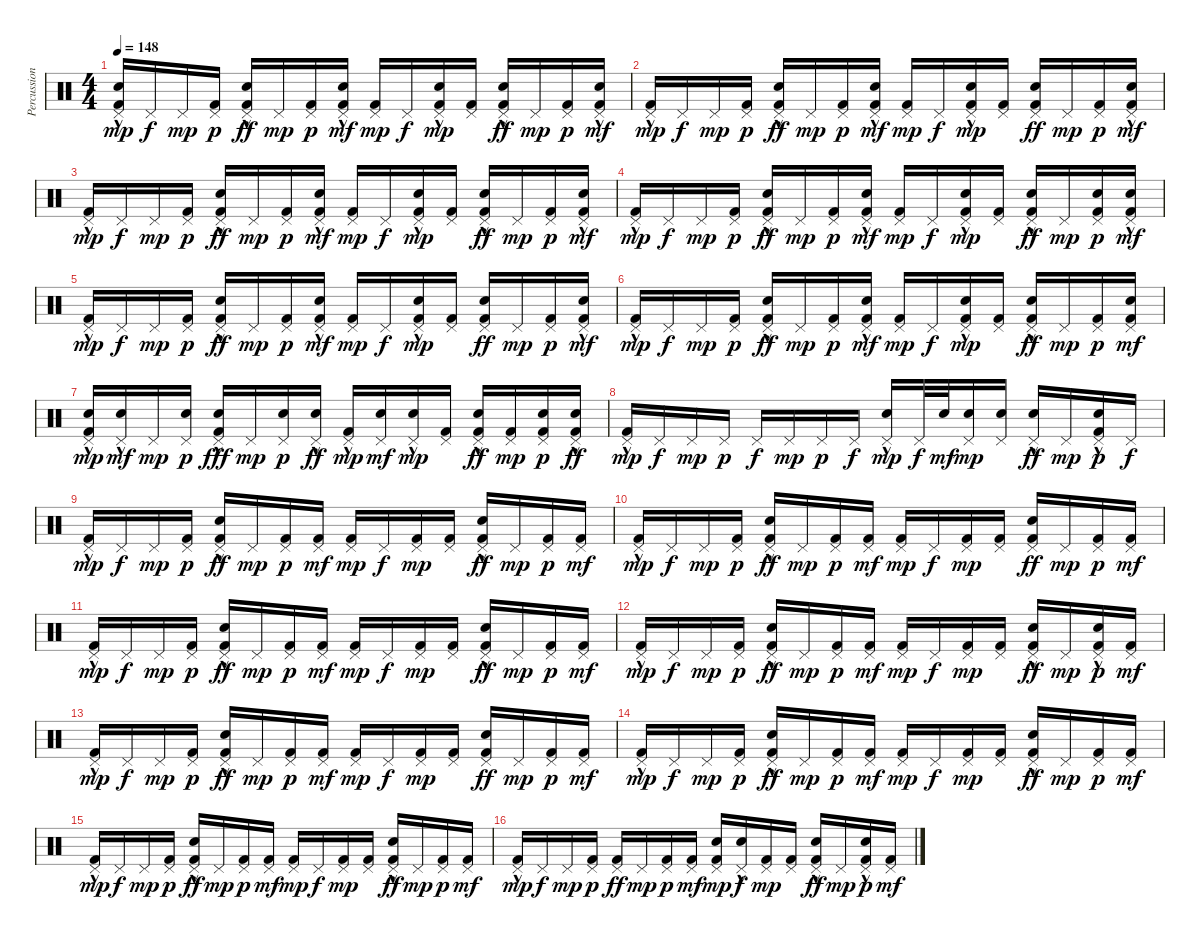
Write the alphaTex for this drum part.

\track ("Percussion" "Percussion") {instrument percussion}
\staff {score}
\articulation defaults
\ts (4 4)
\tempo 148
\clef neutral
\ks c
("Electric Snare (hit)" "Kick (hit) 2"{hac} "Pedal Hi-Hat (hit)").16{dy mp} "Pedal Hi-Hat (hit)".16{dy f} "Pedal Hi-Hat (hit)".16{dy mp} ("Kick (hit) 2" "Pedal Hi-Hat (hit)").16{dy p} ("Electric Snare (hit)"{hac} "Kick (hit) 2" "Pedal Hi-Hat (hit)").16{dy ff} "Pedal Hi-Hat (hit)".16{dy mp} ("Kick (hit) 2" "Pedal Hi-Hat (hit)").16{dy p} ("Electric Snare (hit)"{hac} "Kick (hit) 2" "Pedal Hi-Hat (hit)").16{dy mf} ("Kick (hit) 2" "Pedal Hi-Hat (hit)").16{dy mp} "Pedal Hi-Hat (hit)".16{dy f} ("Electric Snare (hit)"{hac} "Kick (hit) 2" "Pedal Hi-Hat (hit)").16{dy mp} ("Kick (hit) 2" "Pedal Hi-Hat (hit)").16 ("Electric Snare (hit)"{hac} "Kick (hit) 2" "Pedal Hi-Hat (hit)").16{dy ff} "Pedal Hi-Hat (hit)".16{dy mp} ("Kick (hit) 2" "Pedal Hi-Hat (hit)").16{dy p} ("Electric Snare (hit)"{hac} "Kick (hit) 2" "Pedal Hi-Hat (hit)").16{dy mf} |
("Kick (hit) 2"{hac} "Pedal Hi-Hat (hit)").16{dy mp} "Pedal Hi-Hat (hit)".16{dy f} "Pedal Hi-Hat (hit)".16{dy mp} ("Kick (hit) 2" "Pedal Hi-Hat (hit)").16{dy p} ("Electric Snare (hit)"{hac} "Kick (hit) 2" "Pedal Hi-Hat (hit)").16{dy ff} "Pedal Hi-Hat (hit)".16{dy mp} ("Kick (hit) 2" "Pedal Hi-Hat (hit)").16{dy p} ("Electric Snare (hit)"{hac} "Kick (hit) 2" "Pedal Hi-Hat (hit)").16{dy mf} ("Kick (hit) 2" "Pedal Hi-Hat (hit)").16{dy mp} "Pedal Hi-Hat (hit)".16{dy f} ("Electric Snare (hit)"{hac} "Kick (hit) 2" "Pedal Hi-Hat (hit)").16{dy mp} ("Kick (hit) 2" "Pedal Hi-Hat (hit)").16 ("Electric Snare (hit)" "Kick (hit) 2" "Pedal Hi-Hat (hit)").16{dy ff} "Pedal Hi-Hat (hit)".16{dy mp} ("Kick (hit) 2" "Pedal Hi-Hat (hit)").16{dy p} ("Electric Snare (hit)"{hac} "Kick (hit) 2" "Pedal Hi-Hat (hit)").16{dy mf} |
("Kick (hit) 2"{hac} "Pedal Hi-Hat (hit)").16{dy mp} "Pedal Hi-Hat (hit)".16{dy f} "Pedal Hi-Hat (hit)".16{dy mp} ("Kick (hit) 2" "Pedal Hi-Hat (hit)").16{dy p} ("Electric Snare (hit)"{hac} "Kick (hit) 2" "Pedal Hi-Hat (hit)").16{dy ff} "Pedal Hi-Hat (hit)".16{dy mp} ("Kick (hit) 2" "Pedal Hi-Hat (hit)").16{dy p} ("Electric Snare (hit)"{hac} "Kick (hit) 2" "Pedal Hi-Hat (hit)").16{dy mf} ("Kick (hit) 2" "Pedal Hi-Hat (hit)").16{dy mp} "Pedal Hi-Hat (hit)".16{dy f} ("Electric Snare (hit)"{hac} "Kick (hit) 2" "Pedal Hi-Hat (hit)").16{dy mp} ("Kick (hit) 2" "Pedal Hi-Hat (hit)").16 ("Electric Snare (hit)"{hac} "Kick (hit) 2" "Pedal Hi-Hat (hit)").16{dy ff} "Pedal Hi-Hat (hit)".16{dy mp} ("Kick (hit) 2" "Pedal Hi-Hat (hit)").16{dy p} ("Electric Snare (hit)"{hac} "Kick (hit) 2" "Pedal Hi-Hat (hit)").16{dy mf} |
("Kick (hit) 2"{hac} "Pedal Hi-Hat (hit)").16{dy mp} "Pedal Hi-Hat (hit)".16{dy f} "Pedal Hi-Hat (hit)".16{dy mp} ("Kick (hit) 2" "Pedal Hi-Hat (hit)").16{dy p} ("Electric Snare (hit)"{hac} "Kick (hit) 2" "Pedal Hi-Hat (hit)").16{dy ff} "Pedal Hi-Hat (hit)".16{dy mp} ("Kick (hit) 2" "Pedal Hi-Hat (hit)").16{dy p} ("Electric Snare (hit)"{hac} "Kick (hit) 2" "Pedal Hi-Hat (hit)").16{dy mf} ("Kick (hit) 2" "Pedal Hi-Hat (hit)").16{dy mp} "Pedal Hi-Hat (hit)".16{dy f} ("Electric Snare (hit)"{hac} "Kick (hit) 2" "Pedal Hi-Hat (hit)").16{dy mp} ("Kick (hit) 2" "Pedal Hi-Hat (hit)").16 ("Electric Snare (hit)"{hac} "Kick (hit) 2" "Pedal Hi-Hat (hit)").16{dy ff} "Pedal Hi-Hat (hit)".16{dy mp} ("Electric Snare (hit)" "Kick (hit) 2" "Pedal Hi-Hat (hit)").16{dy p} ("Electric Snare (hit)"{hac} "Kick (hit) 2" "Pedal Hi-Hat (hit)").16{dy mf} |
("Kick (hit) 2"{hac} "Pedal Hi-Hat (hit)").16{dy mp} "Pedal Hi-Hat (hit)".16{dy f} "Pedal Hi-Hat (hit)".16{dy mp} ("Kick (hit) 2" "Pedal Hi-Hat (hit)").16{dy p} ("Electric Snare (hit)"{hac} "Kick (hit) 2" "Pedal Hi-Hat (hit)").16{dy ff} "Pedal Hi-Hat (hit)".16{dy mp} ("Kick (hit) 2" "Pedal Hi-Hat (hit)").16{dy p} ("Electric Snare (hit)"{hac} "Kick (hit) 2" "Pedal Hi-Hat (hit)").16{dy mf} ("Kick (hit) 2" "Pedal Hi-Hat (hit)").16{dy mp} "Pedal Hi-Hat (hit)".16{dy f} ("Electric Snare (hit)"{hac} "Kick (hit) 2" "Pedal Hi-Hat (hit)").16{dy mp} ("Kick (hit) 2" "Pedal Hi-Hat (hit)").16 ("Electric Snare (hit)" "Kick (hit) 2" "Pedal Hi-Hat (hit)").16{dy ff} "Pedal Hi-Hat (hit)".16{dy mp} ("Kick (hit) 2" "Pedal Hi-Hat (hit)").16{dy p} ("Electric Snare (hit)"{hac} "Kick (hit) 2" "Pedal Hi-Hat (hit)").16{dy mf} |
("Kick (hit) 2"{hac} "Pedal Hi-Hat (hit)").16{dy mp} "Pedal Hi-Hat (hit)".16{dy f} "Pedal Hi-Hat (hit)".16{dy mp} ("Kick (hit) 2" "Pedal Hi-Hat (hit)").16{dy p} ("Electric Snare (hit)"{hac} "Kick (hit) 2" "Pedal Hi-Hat (hit)").16{dy ff} "Pedal Hi-Hat (hit)".16{dy mp} ("Kick (hit) 2" "Pedal Hi-Hat (hit)").16{dy p} ("Electric Snare (hit)"{hac} "Kick (hit) 2" "Pedal Hi-Hat (hit)").16{dy mf} ("Kick (hit) 2" "Pedal Hi-Hat (hit)").16{dy mp} "Pedal Hi-Hat (hit)".16{dy f} ("Electric Snare (hit)"{hac} "Kick (hit) 2" "Pedal Hi-Hat (hit)").16{dy mp} ("Kick (hit) 2" "Pedal Hi-Hat (hit)").16 ("Electric Snare (hit)"{hac} "Kick (hit) 2" "Pedal Hi-Hat (hit)").16{dy ff} "Pedal Hi-Hat (hit)".16{dy mp} ("Kick (hit) 2" "Pedal Hi-Hat (hit)").16{dy p} ("Electric Snare (hit)" "Kick (hit) 2" "Pedal Hi-Hat (hit)").16{dy mf} |
("Electric Snare (hit)" "Kick (hit) 2"{hac} "Pedal Hi-Hat (hit)").16{dy mp} ("Electric Snare (hit)"{hac} "Pedal Hi-Hat (hit)").16{dy mf} "Pedal Hi-Hat (hit)".16{dy mp} ("Electric Snare (hit)" "Pedal Hi-Hat (hit)").16{dy p} ("Kick (hit) 2"{hac} "Electric Snare (hit)"{hac} "Pedal Hi-Hat (hit)").16{dy fff} "Pedal Hi-Hat (hit)".16{dy mp} ("Electric Snare (hit)" "Pedal Hi-Hat (hit)").16{dy p} ("Electric Snare (hit)"{hac} "Pedal Hi-Hat (hit)").16{dy ff} ("Kick (hit) 2"{hac} "Pedal Hi-Hat (hit)").16{dy mp} ("Electric Snare (hit)" "Pedal Hi-Hat (hit)").16{dy mf} ("Electric Snare (hit)"{hac} "Pedal Hi-Hat (hit)").16{dy mp} ("Kick (hit) 2" "Pedal Hi-Hat (hit)").16 ("Electric Snare (hit)"{hac} "Kick (hit) 2" "Pedal Hi-Hat (hit)").16{dy ff} ("Kick (hit) 2" "Pedal Hi-Hat (hit)").16{dy mp} ("Electric Snare (hit)" "Kick (hit) 2" "Pedal Hi-Hat (hit)").16{dy p} ("Electric Snare (hit)"{hac} "Kick (hit) 2" "Pedal Hi-Hat (hit)").16{dy ff} |
("Kick (hit) 2"{hac} "Pedal Hi-Hat (hit)").16{dy mp} "Pedal Hi-Hat (hit)".16{dy f} "Pedal Hi-Hat (hit)".16{dy mp} "Pedal Hi-Hat (hit)".16{dy p} "Pedal Hi-Hat (hit)".16{dy f} "Pedal Hi-Hat (hit)".16{dy mp} "Pedal Hi-Hat (hit)".16{dy p} "Pedal Hi-Hat (hit)".16{dy f} ("Electric Snare (hit)"{hac} "Pedal Hi-Hat (hit)").16{dy mp} "Pedal Hi-Hat (hit)".32{dy f} "Electric Snare (hit)".32{dy mf} ("Electric Snare (hit)" "Pedal Hi-Hat (hit)").16{dy mp} ("Electric Snare (hit)" "Pedal Hi-Hat (hit)").16 ("Electric Snare (hit)"{hac} "Pedal Hi-Hat (hit)").16{dy ff} "Pedal Hi-Hat (hit)".16{dy mp} ("Electric Snare (hit)"{hac} "Kick (hit) 2" "Pedal Hi-Hat (hit)").16{dy p} "Pedal Hi-Hat (hit)".16{dy f} |
("Kick (hit) 2"{hac} "Pedal Hi-Hat (hit)").16{dy mp} "Pedal Hi-Hat (hit)".16{dy f} "Pedal Hi-Hat (hit)".16{dy mp} ("Kick (hit) 2" "Pedal Hi-Hat (hit)").16{dy p} ("Electric Snare (hit)"{hac} "Kick (hit) 2" "Pedal Hi-Hat (hit)").16{dy ff} "Pedal Hi-Hat (hit)".16{dy mp} ("Kick (hit) 2" "Pedal Hi-Hat (hit)").16{dy p} ("Kick (hit) 2" "Pedal Hi-Hat (hit)").16{dy mf} ("Kick (hit) 2" "Pedal Hi-Hat (hit)").16{dy mp} "Pedal Hi-Hat (hit)".16{dy f} ("Kick (hit) 2" "Pedal Hi-Hat (hit)").16{dy mp} ("Kick (hit) 2" "Pedal Hi-Hat (hit)").16 ("Electric Snare (hit)"{hac} "Kick (hit) 2" "Pedal Hi-Hat (hit)").16{dy ff} "Pedal Hi-Hat (hit)".16{dy mp} ("Kick (hit) 2" "Pedal Hi-Hat (hit)").16{dy p} ("Kick (hit) 2" "Pedal Hi-Hat (hit)").16{dy mf} |
("Kick (hit) 2"{hac} "Pedal Hi-Hat (hit)").16{dy mp} "Pedal Hi-Hat (hit)".16{dy f} "Pedal Hi-Hat (hit)".16{dy mp} ("Kick (hit) 2" "Pedal Hi-Hat (hit)").16{dy p} ("Electric Snare (hit)"{hac} "Kick (hit) 2" "Pedal Hi-Hat (hit)").16{dy ff} "Pedal Hi-Hat (hit)".16{dy mp} ("Kick (hit) 2" "Pedal Hi-Hat (hit)").16{dy p} ("Kick (hit) 2" "Pedal Hi-Hat (hit)").16{dy mf} ("Kick (hit) 2" "Pedal Hi-Hat (hit)").16{dy mp} "Pedal Hi-Hat (hit)".16{dy f} ("Kick (hit) 2" "Pedal Hi-Hat (hit)").16{dy mp} ("Kick (hit) 2" "Pedal Hi-Hat (hit)").16 ("Electric Snare (hit)" "Kick (hit) 2" "Pedal Hi-Hat (hit)").16{dy ff} "Pedal Hi-Hat (hit)".16{dy mp} ("Kick (hit) 2" "Pedal Hi-Hat (hit)").16{dy p} ("Kick (hit) 2" "Pedal Hi-Hat (hit)").16{dy mf} |
("Kick (hit) 2"{hac} "Pedal Hi-Hat (hit)").16{dy mp} "Pedal Hi-Hat (hit)".16{dy f} "Pedal Hi-Hat (hit)".16{dy mp} ("Kick (hit) 2" "Pedal Hi-Hat (hit)").16{dy p} ("Electric Snare (hit)"{hac} "Kick (hit) 2" "Pedal Hi-Hat (hit)").16{dy ff} "Pedal Hi-Hat (hit)".16{dy mp} ("Kick (hit) 2" "Pedal Hi-Hat (hit)").16{dy p} ("Kick (hit) 2" "Pedal Hi-Hat (hit)").16{dy mf} ("Kick (hit) 2" "Pedal Hi-Hat (hit)").16{dy mp} "Pedal Hi-Hat (hit)".16{dy f} ("Kick (hit) 2" "Pedal Hi-Hat (hit)").16{dy mp} ("Kick (hit) 2" "Pedal Hi-Hat (hit)").16 ("Electric Snare (hit)"{hac} "Kick (hit) 2" "Pedal Hi-Hat (hit)").16{dy ff} "Pedal Hi-Hat (hit)".16{dy mp} ("Kick (hit) 2" "Pedal Hi-Hat (hit)").16{dy p} ("Kick (hit) 2" "Pedal Hi-Hat (hit)").16{dy mf} |
("Kick (hit) 2"{hac} "Pedal Hi-Hat (hit)").16{dy mp} "Pedal Hi-Hat (hit)".16{dy f} "Pedal Hi-Hat (hit)".16{dy mp} ("Kick (hit) 2" "Pedal Hi-Hat (hit)").16{dy p} ("Electric Snare (hit)"{hac} "Kick (hit) 2" "Pedal Hi-Hat (hit)").16{dy ff} "Pedal Hi-Hat (hit)".16{dy mp} ("Kick (hit) 2" "Pedal Hi-Hat (hit)").16{dy p} ("Kick (hit) 2" "Pedal Hi-Hat (hit)").16{dy mf} ("Kick (hit) 2" "Pedal Hi-Hat (hit)").16{dy mp} "Pedal Hi-Hat (hit)".16{dy f} ("Kick (hit) 2" "Pedal Hi-Hat (hit)").16{dy mp} ("Kick (hit) 2" "Pedal Hi-Hat (hit)").16 ("Electric Snare (hit)"{hac} "Kick (hit) 2" "Pedal Hi-Hat (hit)").16{dy ff} "Pedal Hi-Hat (hit)".16{dy mp} ("Electric Snare (hit)"{hac} "Kick (hit) 2" "Pedal Hi-Hat (hit)").16{dy p} ("Kick (hit) 2" "Pedal Hi-Hat (hit)").16{dy mf} |
("Kick (hit) 2"{hac} "Pedal Hi-Hat (hit)").16{dy mp} "Pedal Hi-Hat (hit)".16{dy f} "Pedal Hi-Hat (hit)".16{dy mp} ("Kick (hit) 2" "Pedal Hi-Hat (hit)").16{dy p} ("Electric Snare (hit)"{hac} "Kick (hit) 2" "Pedal Hi-Hat (hit)").16{dy ff} "Pedal Hi-Hat (hit)".16{dy mp} ("Kick (hit) 2" "Pedal Hi-Hat (hit)").16{dy p} ("Kick (hit) 2" "Pedal Hi-Hat (hit)").16{dy mf} ("Kick (hit) 2" "Pedal Hi-Hat (hit)").16{dy mp} "Pedal Hi-Hat (hit)".16{dy f} ("Kick (hit) 2" "Pedal Hi-Hat (hit)").16{dy mp} ("Kick (hit) 2" "Pedal Hi-Hat (hit)").16 ("Electric Snare (hit)" "Kick (hit) 2" "Pedal Hi-Hat (hit)").16{dy ff} "Pedal Hi-Hat (hit)".16{dy mp} ("Kick (hit) 2" "Pedal Hi-Hat (hit)").16{dy p} ("Kick (hit) 2" "Pedal Hi-Hat (hit)").16{dy mf} |
("Kick (hit) 2"{hac} "Pedal Hi-Hat (hit)").16{dy mp} "Pedal Hi-Hat (hit)".16{dy f} "Pedal Hi-Hat (hit)".16{dy mp} ("Kick (hit) 2" "Pedal Hi-Hat (hit)").16{dy p} ("Electric Snare (hit)"{hac} "Kick (hit) 2" "Pedal Hi-Hat (hit)").16{dy ff} "Pedal Hi-Hat (hit)".16{dy mp} ("Kick (hit) 2" "Pedal Hi-Hat (hit)").16{dy p} ("Kick (hit) 2" "Pedal Hi-Hat (hit)").16{dy mf} ("Kick (hit) 2" "Pedal Hi-Hat (hit)").16{dy mp} "Pedal Hi-Hat (hit)".16{dy f} ("Kick (hit) 2" "Pedal Hi-Hat (hit)").16{dy mp} ("Kick (hit) 2" "Pedal Hi-Hat (hit)").16 ("Electric Snare (hit)"{hac} "Kick (hit) 2" "Pedal Hi-Hat (hit)").16{dy ff} "Pedal Hi-Hat (hit)".16{dy mp} ("Kick (hit) 2" "Pedal Hi-Hat (hit)").16{dy p} ("Kick (hit) 2" "Pedal Hi-Hat (hit)").16{dy mf} |
("Kick (hit) 2"{hac} "Pedal Hi-Hat (hit)").16{dy mp} "Pedal Hi-Hat (hit)".16{dy f} "Pedal Hi-Hat (hit)".16{dy mp} ("Kick (hit) 2" "Pedal Hi-Hat (hit)").16{dy p} ("Electric Snare (hit)"{hac} "Kick (hit) 2" "Pedal Hi-Hat (hit)").16{dy ff} "Pedal Hi-Hat (hit)".16{dy mp} ("Kick (hit) 2" "Pedal Hi-Hat (hit)").16{dy p} ("Kick (hit) 2" "Pedal Hi-Hat (hit)").16{dy mf} ("Kick (hit) 2" "Pedal Hi-Hat (hit)").16{dy mp} "Pedal Hi-Hat (hit)".16{dy f} ("Kick (hit) 2" "Pedal Hi-Hat (hit)").16{dy mp} ("Kick (hit) 2" "Pedal Hi-Hat (hit)").16 ("Electric Snare (hit)"{hac} "Kick (hit) 2" "Pedal Hi-Hat (hit)").16{dy ff} "Pedal Hi-Hat (hit)".16{dy mp} ("Kick (hit) 2" "Pedal Hi-Hat (hit)").16{dy p} ("Kick (hit) 2" "Pedal Hi-Hat (hit)").16{dy mf} |
("Kick (hit) 2"{hac} "Pedal Hi-Hat (hit)").16{dy mp} "Pedal Hi-Hat (hit)".16{dy f} "Pedal Hi-Hat (hit)".16{dy mp} ("Kick (hit) 2" "Pedal Hi-Hat (hit)").16{dy p} ("Kick (hit) 2" "Pedal Hi-Hat (hit)").16{dy ff} "Pedal Hi-Hat (hit)".16{dy mp} ("Kick (hit) 2" "Pedal Hi-Hat (hit)").16{dy p} ("Kick (hit) 2" "Pedal Hi-Hat (hit)").16{dy mf} ("Electric Snare (hit)" "Kick (hit) 2" "Pedal Hi-Hat (hit)").16{dy mp} ("Electric Snare (hit)"{hac} "Pedal Hi-Hat (hit)").16{dy f} ("Kick (hit) 2" "Pedal Hi-Hat (hit)").16{dy mp} ("Kick (hit) 2" "Pedal Hi-Hat (hit)").16 ("Electric Snare (hit)"{hac} "Kick (hit) 2" "Pedal Hi-Hat (hit)").16{dy ff} "Pedal Hi-Hat (hit)".16{dy mp} ("Electric Snare (hit)"{hac} "Kick (hit) 2" "Pedal Hi-Hat (hit)").16{dy p} ("Kick (hit) 2" "Pedal Hi-Hat (hit)").16{dy mf}
